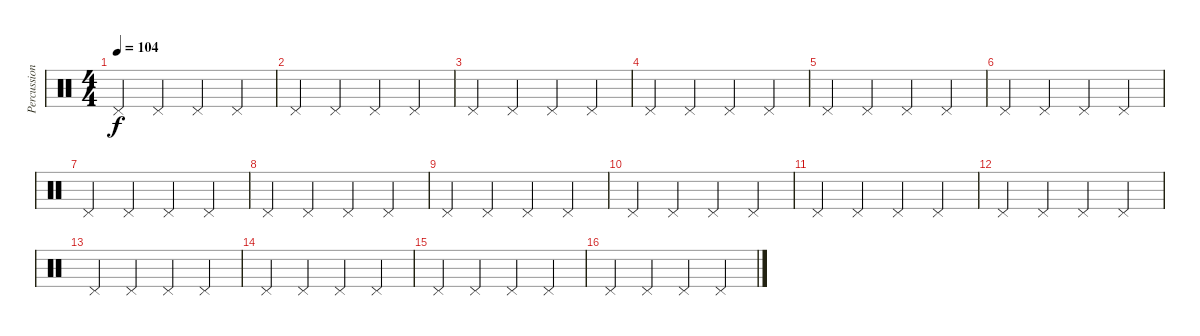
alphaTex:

\track ("Percussion" "Percussion") {instrument percussion}
\staff {score}
\articulation defaults
\ts (4 4)
\tempo 104
\clef neutral
\ks c "Pedal Hi-Hat (hit)".4{dy f} "Pedal Hi-Hat (hit)".4 "Pedal Hi-Hat (hit)".4 "Pedal Hi-Hat (hit)".4
|
"Pedal Hi-Hat (hit)".4 "Pedal Hi-Hat (hit)".4 "Pedal Hi-Hat (hit)".4 "Pedal Hi-Hat (hit)".4 |
"Pedal Hi-Hat (hit)".4 "Pedal Hi-Hat (hit)".4 "Pedal Hi-Hat (hit)".4 "Pedal Hi-Hat (hit)".4 |
"Pedal Hi-Hat (hit)".4 "Pedal Hi-Hat (hit)".4 "Pedal Hi-Hat (hit)".4 "Pedal Hi-Hat (hit)".4 |
"Pedal Hi-Hat (hit)".4 "Pedal Hi-Hat (hit)".4 "Pedal Hi-Hat (hit)".4 "Pedal Hi-Hat (hit)".4 |
"Pedal Hi-Hat (hit)".4 "Pedal Hi-Hat (hit)".4 "Pedal Hi-Hat (hit)".4 "Pedal Hi-Hat (hit)".4 |
"Pedal Hi-Hat (hit)".4 "Pedal Hi-Hat (hit)".4 "Pedal Hi-Hat (hit)".4 "Pedal Hi-Hat (hit)".4 |
"Pedal Hi-Hat (hit)".4 "Pedal Hi-Hat (hit)".4 "Pedal Hi-Hat (hit)".4 "Pedal Hi-Hat (hit)".4 |
"Pedal Hi-Hat (hit)".4 "Pedal Hi-Hat (hit)".4 "Pedal Hi-Hat (hit)".4 "Pedal Hi-Hat (hit)".4 |
"Pedal Hi-Hat (hit)".4 "Pedal Hi-Hat (hit)".4 "Pedal Hi-Hat (hit)".4 "Pedal Hi-Hat (hit)".4 |
"Pedal Hi-Hat (hit)".4 "Pedal Hi-Hat (hit)".4 "Pedal Hi-Hat (hit)".4 "Pedal Hi-Hat (hit)".4 |
"Pedal Hi-Hat (hit)".4 "Pedal Hi-Hat (hit)".4 "Pedal Hi-Hat (hit)".4 "Pedal Hi-Hat (hit)".4 |
"Pedal Hi-Hat (hit)".4 "Pedal Hi-Hat (hit)".4 "Pedal Hi-Hat (hit)".4 "Pedal Hi-Hat (hit)".4 |
"Pedal Hi-Hat (hit)".4 "Pedal Hi-Hat (hit)".4 "Pedal Hi-Hat (hit)".4 "Pedal Hi-Hat (hit)".4 |
"Pedal Hi-Hat (hit)".4 "Pedal Hi-Hat (hit)".4 "Pedal Hi-Hat (hit)".4 "Pedal Hi-Hat (hit)".4 |
"Pedal Hi-Hat (hit)".4 "Pedal Hi-Hat (hit)".4 "Pedal Hi-Hat (hit)".4 "Pedal Hi-Hat (hit)".4
